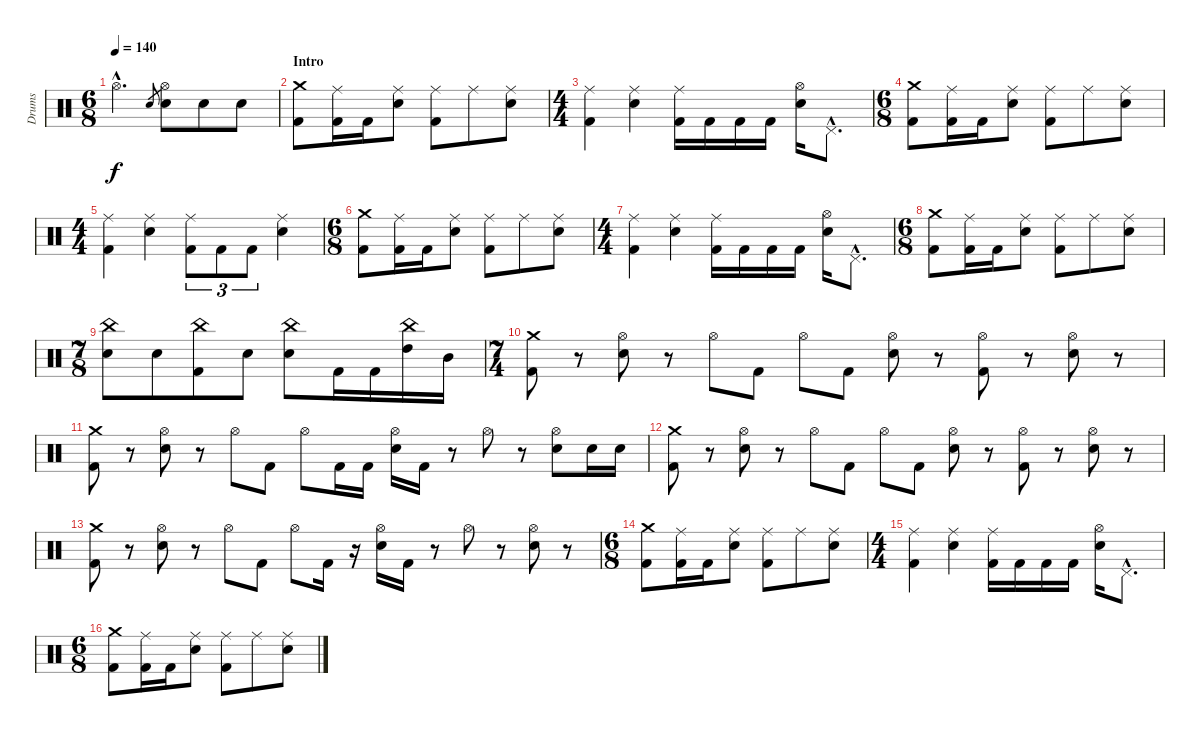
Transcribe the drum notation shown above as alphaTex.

\track ("Drums" "Drums") {instrument percussion}
\staff {score}
\articulation defaults
\ts (6 8)
\tempo 140
\clef neutral
\ks c "Hi-Hat (open)"{hac}.4{d dy f} "Snare (hit) 2".8{gr}
("Hi-Hat (open)" "Snare (hit) 2").8 "Snare (hit) 2".8 "Snare (hit) 2".8 |
\section ("" "Intro")
("Crash medium (hit)" "Kick (hit) 2").8 ("Ride (middle)" "Kick (hit) 2").16 "Kick (hit) 2".16 ("Ride (middle)" "Snare (hit) 2").8 ("Ride (middle)" "Kick (hit) 2").8 "Ride (middle)".8 ("Ride (middle)" "Snare (hit) 2").8 |
\ts (4 4)
("Ride (middle)" "Kick (hit) 2").4 ("Ride (middle)" "Snare (hit) 2").4 ("Ride (middle)" "Kick (hit) 2").16 "Kick (hit) 2".16 "Kick (hit) 2".16 "Kick (hit) 2".16 ("Hi-Hat (open)" "Snare (hit) 2").16 "Pedal Hi-Hat (hit)"{hac}.8{d} |
\ts (6 8)
("Crash medium (hit)" "Kick (hit) 2").8 ("Ride (middle)" "Kick (hit) 2").16 "Kick (hit) 2".16 ("Ride (middle)" "Snare (hit) 2").8 ("Ride (middle)" "Kick (hit) 2").8 "Ride (middle)".8 ("Ride (middle)" "Snare (hit) 2").8 |
\ts (4 4)
("Ride (middle)" "Kick (hit) 2").4 ("Ride (middle)" "Snare (hit) 2").4 ("Ride (middle)" "Kick (hit) 2").8{tu (3 2)} "Kick (hit) 2".8{tu (3 2)} "Kick (hit) 2".8{tu (3 2)} ("Ride (middle)" "Snare (hit) 2").4 |
\ts (6 8)
("Crash medium (hit)" "Kick (hit) 2").8 ("Ride (middle)" "Kick (hit) 2").16 "Kick (hit) 2".16 ("Ride (middle)" "Snare (hit) 2").8 ("Ride (middle)" "Kick (hit) 2").8 "Ride (middle)".8 ("Ride (middle)" "Snare (hit) 2").8 |
\ts (4 4)
("Ride (middle)" "Kick (hit) 2").4 ("Ride (middle)" "Snare (hit) 2").4 ("Ride (middle)" "Kick (hit) 2").16 "Kick (hit) 2".16 "Kick (hit) 2".16 "Kick (hit) 2".16 ("Hi-Hat (open)" "Snare (hit) 2").16 "Pedal Hi-Hat (hit)"{hac}.8{d} |
\ts (6 8)
("Crash medium (hit)" "Kick (hit) 2").8 ("Ride (middle)" "Kick (hit) 2").16 "Kick (hit) 2".16 ("Ride (middle)" "Snare (hit) 2").8 ("Ride (middle)" "Kick (hit) 2").8 "Ride (middle)".8 ("Ride (middle)" "Snare (hit) 2").8 |
\ts (7 8)
("China (hit)" "Snare (hit) 2").8 "Snare (hit) 2".8 ("China (hit)" "Kick (hit) 2").8 "Snare (hit) 2".8 ("China (hit)" "Snare (hit) 2").8 "Kick (hit) 2".16 "Kick (hit) 2".16 ("China (hit)" "High Tom (hit)").16 "Mid Tom (hit)".16 |
\ts (7 4)
("Crash medium (hit)" "Kick (hit) 2").8 r.8 ("Hi-Hat (open)" "Snare (hit) 2").8 r.8 "Hi-Hat (open)".8 "Kick (hit) 2".8 "Hi-Hat (open)".8 "Kick (hit) 2".8 ("Hi-Hat (open)" "Snare (hit) 2").8 r.8 ("Hi-Hat (open)" "Kick (hit) 2").8 r.8 ("Hi-Hat (open)" "Snare (hit) 2").8 r.8 |
("Crash medium (hit)" "Kick (hit) 2").8 r.8 ("Hi-Hat (open)" "Snare (hit) 2").8 r.8 "Hi-Hat (open)".8 "Kick (hit) 2".8 "Hi-Hat (open)".8 "Kick (hit) 2".16 "Kick (hit) 2".16 ("Hi-Hat (open)" "Snare (hit) 2").16 "Kick (hit) 2".16 r.8 "Hi-Hat (open)".8 r.8 ("Hi-Hat (open)" "Snare (hit) 2").8 "Snare (hit) 2".16 "Snare (hit) 2".16 |
("Crash medium (hit)" "Kick (hit) 2").8 r.8 ("Hi-Hat (open)" "Snare (hit) 2").8 r.8 "Hi-Hat (open)".8 "Kick (hit) 2".8 "Hi-Hat (open)".8 "Kick (hit) 2".8 ("Hi-Hat (open)" "Snare (hit) 2").8 r.8 ("Hi-Hat (open)" "Kick (hit) 2").8 r.8 ("Hi-Hat (open)" "Snare (hit) 2").8 r.8 |
("Crash medium (hit)" "Kick (hit) 2").8 r.8 ("Hi-Hat (open)" "Snare (hit) 2").8 r.8 "Hi-Hat (open)".8 "Kick (hit) 2".8 "Hi-Hat (open)".8 "Kick (hit) 2".16 r.16 ("Hi-Hat (open)" "Snare (hit) 2").16 "Kick (hit) 2".16 r.8 "Hi-Hat (open)".8 r.8 ("Hi-Hat (open)" "Snare (hit) 2").8 r.8 |
\ts (6 8)
("Crash medium (hit)" "Kick (hit) 2").8 ("Ride (middle)" "Kick (hit) 2").16 "Kick (hit) 2".16 ("Ride (middle)" "Snare (hit) 2").8 ("Ride (middle)" "Kick (hit) 2").8 "Ride (middle)".8 ("Ride (middle)" "Snare (hit) 2").8 |
\ts (4 4)
("Ride (middle)" "Kick (hit) 2").4 ("Ride (middle)" "Snare (hit) 2").4 ("Ride (middle)" "Kick (hit) 2").16 "Kick (hit) 2".16 "Kick (hit) 2".16 "Kick (hit) 2".16 ("Hi-Hat (open)" "Snare (hit) 2").16 "Pedal Hi-Hat (hit)"{hac}.8{d} |
\ts (6 8)
("Crash medium (hit)" "Kick (hit) 2").8 ("Ride (middle)" "Kick (hit) 2").16 "Kick (hit) 2".16 ("Ride (middle)" "Snare (hit) 2").8 ("Ride (middle)" "Kick (hit) 2").8 "Ride (middle)".8 ("Ride (middle)" "Snare (hit) 2").8
